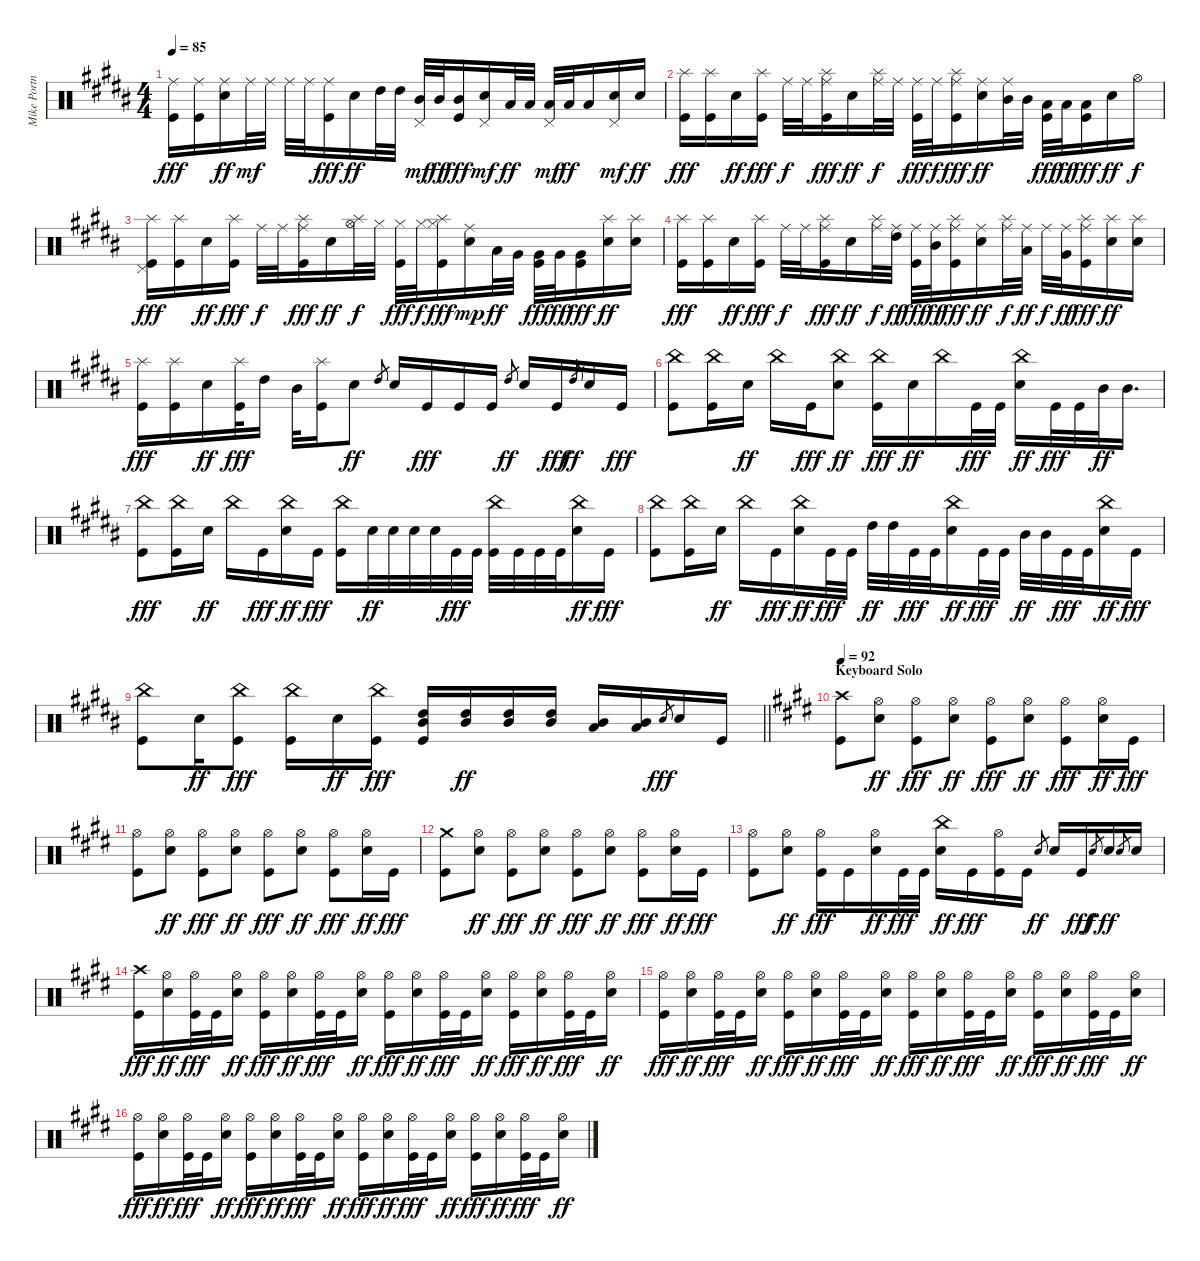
\track ("Mike Portnoy" "Mike Portn") {instrument percussion}
\staff {score}
\articulation defaults
\ts (4 4)
\tempo 85
\clef neutral
\ks b
("Ride (middle)" "Kick (hit)").16{dy fff} ("Ride (middle)" "Kick (hit)").16 ("Ride (middle)" "Electric Snare (hit)").16{dy ff} "Ride (middle)".32{dy mf} "Ride (middle)".32 "Ride (middle)".32 "Ride (middle)".32 ("Ride (middle)" "Kick (hit)").16{dy fff} "Electric Snare (hit)".16{dy ff} "High Tom (hit)".32 "High Tom (hit)".32 ("Mid Tom (hit)" "Pedal Hi-Hat (hit)").32{dy mf} "Mid Tom (hit)".32{dy ff} ("Mid Tom (hit)" "Kick (hit)").16{dy fff} ("Electric Snare (hit)" "Pedal Hi-Hat (hit)").16{dy mf} "Low Tom (hit)".32{dy ff} "Low Tom (hit)".32 ("Low Tom (hit)" "Pedal Hi-Hat (hit)").32{dy mf} "Low Tom (hit)".32{dy ff} "Low Tom (hit)".16 ("Electric Snare (hit)" "Pedal Hi-Hat (hit)").16{dy mf} "Electric Snare (hit)".16{dy ff} |
("Splash (hit)" "Kick (hit)").16{dy fff} ("Splash (hit)" "Kick (hit)").16 "Electric Snare (hit)".16{dy ff} ("Splash (hit)" "Kick (hit)").16{dy fff} "Ride (middle)".32{dy f} "Ride (middle)".32 ("Ride (middle)" "Splash (hit)" "Kick (hit)").16{dy fff} "Electric Snare (hit)".16{dy ff} ("Ride (middle)" "Splash (hit)").32{dy f} "Ride (middle)".32 ("Ride (middle)" "Kick (hit)").32{dy fff} "Ride (middle)".32{dy f} ("Ride (middle)" "Splash (hit)" "Kick (hit)").16{dy fff} ("Ride (middle)" "Electric Snare (hit)").16{dy ff} ("Ride (middle)" "Mid Tom (hit)").32 "Mid Tom (hit)".32 ("Low Tom (hit)" "Kick (hit)").32{dy fff} "Low Tom (hit)".32{dy ff} ("Low Tom (hit)" "Kick (hit)").16{dy fff} "Electric Snare (hit)".16{dy ff} "Hi-Hat (open)".16{dy f} |
("Splash (hit)" "Pedal Hi-Hat (hit)" "Kick (hit)").16{dy fff} ("Splash (hit)" "Kick (hit)").16 "Electric Snare (hit)".16{dy ff} ("Splash (hit)" "Kick (hit)").16{dy fff} "Ride (middle)".32{dy f} "Ride (middle)".32 ("Ride (middle)" "Splash (hit)" "Kick (hit)").16{dy fff} "Electric Snare (hit)".16{dy ff} ("Hi-Hat (open)" "Splash (hit)").32{dy f} "Hi-Hat (closed)".32 ("Hi-Hat (closed)" "Kick (hit)").32{dy fff} "Hi-Hat (closed)".32{dy f} ("Hi-Hat (closed)" "Splash (hit)" "Kick (hit)").16{dy fff} ("Ride (middle)" "Electric Snare (hit)").16{dy mp} "Low Tom (hit)".32{dy ff} "Very Low Tom (hit)".32 ("Very Low Tom (hit)" "Kick (hit)").32{dy fff} "Very Low Tom (hit)".32{dy ff} ("Very Low Tom (hit)" "Kick (hit)").16{dy fff} ("Splash (hit)" "Electric Snare (hit)").16{dy ff} ("Splash (hit)" "Electric Snare (hit)").16 |
("Splash (hit)" "Kick (hit)").16{dy fff} ("Splash (hit)" "Kick (hit)").16 "Electric Snare (hit)".16{dy ff} ("Splash (hit)" "Kick (hit)").16{dy fff} "Ride (middle)".32{dy f} "Ride (middle)".32 ("Ride (middle)" "Splash (hit)" "Kick (hit)").16{dy fff} "Electric Snare (hit)".16{dy ff} ("Ride (middle)" "Splash (hit)").32{dy f} ("Ride (middle)" "High Tom (hit)").32{dy ff} ("Ride (middle)" "Kick (hit)").32{dy fff} ("Ride (middle)" "Mid Tom (hit)").32{dy ff} ("Ride (middle)" "Splash (hit)" "Kick (hit)").16{dy fff} ("Ride (middle)" "Electric Snare (hit)").16{dy ff} ("Ride (middle)" "Splash (hit)").32{dy f} ("Ride (middle)" "Low Tom (hit)").32{dy ff} "Ride (middle)".32{dy f} ("Ride (middle)" "Very Low Tom (hit)").32{dy ff} ("Ride (middle)" "Splash (hit)" "Kick (hit)").16{dy fff} ("Splash (hit)" "Electric Snare (hit)").16{dy ff} ("Splash (hit)" "Electric Snare (hit)").16 |
("Splash (hit)" "Kick (hit)").16{dy fff} ("Splash (hit)" "Kick (hit)").16 "Electric Snare (hit)".16{dy ff} ("Splash (hit)" "Kick (hit)").32{dy fff} "High Tom (hit)".16 "Mid Tom (hit)".32 ("Splash (hit)" "Kick (hit)").16 "Electric Snare (hit)".8{dy ff} "High Tom (hit)".8{gr} "Electric Snare (hit)".16 "Kick (hit)".16{dy fff} "Kick (hit)".16 "Kick (hit)".16 "High Tom (hit)".8{gr dy ff} "Electric Snare (hit)".16 "Kick (hit)".16{dy fff} "High Tom (hit)".8{gr dy ff} "Electric Snare (hit)".16 "Kick (hit)".16{dy fff} |
("China (hit)" "Kick (hit)").8 ("China (hit)" "Kick (hit)").16 "Electric Snare (hit)".16{dy ff} "China (hit)".16 "Kick (hit)".16{dy fff} ("China (hit)" "Electric Snare (hit)").8{dy ff} ("China (hit)" "Kick (hit)").16{dy fff} "Electric Snare (hit)".16{dy ff} "China (hit)".16 "Kick (hit)".32{dy fff} "Kick (hit)".32 ("China (hit)" "Electric Snare (hit)").16{dy ff} "Kick (hit)".32{dy fff} "Kick (hit)".32 "Mid Tom (hit)".32{dy ff} "Mid Tom (hit)".16{d} |
("China (hit)" "Kick (hit)").8{dy fff} ("China (hit)" "Kick (hit)").16 "Electric Snare (hit)".16{dy ff} "China (hit)".16 "Kick (hit)".16{dy fff} ("China (hit)" "Electric Snare (hit)").16{dy ff} "Kick (hit)".16{dy fff} ("China (hit)" "Kick (hit)").16 "Electric Snare (hit)".32{dy ff} "Electric Snare (hit)".32 "Electric Snare (hit)".32 "Electric Snare (hit)".32 "Kick (hit)".32{dy fff} "Kick (hit)".32 ("China (hit)" "Kick (hit)").32 "Kick (hit)".32 "Kick (hit)".32 "Kick (hit)".32 ("China (hit)" "Electric Snare (hit)").16{dy ff} "Kick (hit)".16{dy fff} |
("China (hit)" "Kick (hit)").8 ("China (hit)" "Kick (hit)").16 "Electric Snare (hit)".16{dy ff} "China (hit)".16 "Kick (hit)".16{dy fff} ("China (hit)" "Electric Snare (hit)").16{dy ff} "Kick (hit)".32{dy fff} "Kick (hit)".32 "High Tom (hit)".32{dy ff} "High Tom (hit)".32 "Kick (hit)".32{dy fff} "Kick (hit)".32 ("China (hit)" "Electric Snare (hit)").16{dy ff} "Kick (hit)".32{dy fff} "Kick (hit)".32 "Mid Tom (hit)".32{dy ff} "Mid Tom (hit)".32 "Kick (hit)".32{dy fff} "Kick (hit)".32 ("China (hit)" "Electric Snare (hit)").16{dy ff} "Kick (hit)".16{dy fff} |
\barLineRight lightlight
("China (hit)" "Kick (hit)").8 "Electric Snare (hit)".16{dy ff} ("China (hit)" "Kick (hit)").8{dy fff} ("China (hit)" "Kick (hit)").16 "Electric Snare (hit)".16{dy ff} ("China (hit)" "Kick (hit)").16{dy fff} ("High Tom (hit)" "Mid Tom (hit)" "Kick (hit)").16 ("High Tom (hit)" "Mid Tom (hit)").16{dy ff} ("High Tom (hit)" "Mid Tom (hit)").16 ("High Tom (hit)" "Mid Tom (hit)").16 ("Mid Tom (hit)" "Low Tom (hit)").16 ("Mid Tom (hit)" "Low Tom (hit)").16 "Electric Snare (hit)".8{gr dy fff} "Electric Snare (hit)".16 "Kick (hit)".16 |
\section ("" "Keyboard Solo")
\tempo 92
\ks e
("Crash high (hit)" "Kick (hit)").8 ("Hi-Hat (open)" "Electric Snare (hit)").8{dy ff} ("Hi-Hat (open)" "Kick (hit)").8{dy fff} ("Hi-Hat (open)" "Electric Snare (hit)").8{dy ff} ("Hi-Hat (open)" "Kick (hit)").8{dy fff} ("Hi-Hat (open)" "Electric Snare (hit)").8{dy ff} ("Hi-Hat (open)" "Kick (hit)").8{dy fff} ("Hi-Hat (open)" "Electric Snare (hit)").16{dy ff} "Kick (hit)".16{dy fff} |
("Hi-Hat (open)" "Kick (hit)").8 ("Hi-Hat (open)" "Electric Snare (hit)").8{dy ff} ("Hi-Hat (open)" "Kick (hit)").8{dy fff} ("Hi-Hat (open)" "Electric Snare (hit)").8{dy ff} ("Hi-Hat (open)" "Kick (hit)").8{dy fff} ("Hi-Hat (open)" "Electric Snare (hit)").8{dy ff} ("Hi-Hat (open)" "Kick (hit)").8{dy fff} ("Hi-Hat (open)" "Electric Snare (hit)").16{dy ff} "Kick (hit)".16{dy fff} |
("Crash medium (hit)" "Kick (hit)").8 ("Hi-Hat (open)" "Electric Snare (hit)").8{dy ff} ("Hi-Hat (open)" "Kick (hit)").8{dy fff} ("Hi-Hat (open)" "Electric Snare (hit)").8{dy ff} ("Hi-Hat (open)" "Kick (hit)").8{dy fff} ("Hi-Hat (open)" "Electric Snare (hit)").8{dy ff} ("Hi-Hat (open)" "Kick (hit)").8{dy fff} ("Hi-Hat (open)" "Electric Snare (hit)").16{dy ff} "Kick (hit)".16{dy fff} |
("Hi-Hat (open)" "Kick (hit)").8 ("Hi-Hat (open)" "Electric Snare (hit)").8{dy ff} ("Hi-Hat (open)" "Kick (hit)").16{dy fff} "Kick (hit)".16 ("Hi-Hat (open)" "Electric Snare (hit)").16{dy ff} "Kick (hit)".32{dy fff} "Kick (hit)".32 ("China (hit)" "Electric Snare (hit)").16{dy ff} "Kick (hit)".16{dy fff} ("Hi-Hat (open)" "Kick (hit)").16 "Kick (hit)".16 "Electric Snare (hit)".8{gr dy ff} "Electric Snare (hit)".16 "Kick (hit)".16{dy fff} "Electric Snare (hit)".8{gr dy f} "Electric Snare (hit)".16{dy ff} "Electric Snare (hit)".8{gr} "Electric Snare (hit)".16 |
("Crash high (hit)" "Kick (hit)").16{dy fff} ("Hi-Hat (open)" "Electric Snare (hit)").16{dy ff} ("Hi-Hat (open)" "Kick (hit)").32{dy fff} "Kick (hit)".32 ("Hi-Hat (open)" "Electric Snare (hit)").16{dy ff} ("Hi-Hat (open)" "Kick (hit)").16{dy fff} ("Hi-Hat (open)" "Electric Snare (hit)").16{dy ff} ("Hi-Hat (open)" "Kick (hit)").32{dy fff} "Kick (hit)".32 ("Hi-Hat (open)" "Electric Snare (hit)").16{dy ff} ("Hi-Hat (open)" "Kick (hit)").16{dy fff} ("Hi-Hat (open)" "Electric Snare (hit)").16{dy ff} ("Hi-Hat (open)" "Kick (hit)").32{dy fff} "Kick (hit)".32 ("Hi-Hat (open)" "Electric Snare (hit)").16{dy ff} ("Hi-Hat (open)" "Kick (hit)").16{dy fff} ("Hi-Hat (open)" "Electric Snare (hit)").16{dy ff} ("Hi-Hat (open)" "Kick (hit)").32{dy fff} "Kick (hit)".32 ("Hi-Hat (open)" "Electric Snare (hit)").16{dy ff} |
("Hi-Hat (open)" "Kick (hit)").16{dy fff} ("Hi-Hat (open)" "Electric Snare (hit)").16{dy ff} ("Hi-Hat (open)" "Kick (hit)").32{dy fff} "Kick (hit)".32 ("Hi-Hat (open)" "Electric Snare (hit)").16{dy ff} ("Hi-Hat (open)" "Kick (hit)").16{dy fff} ("Hi-Hat (open)" "Electric Snare (hit)").16{dy ff} ("Hi-Hat (open)" "Kick (hit)").32{dy fff} "Kick (hit)".32 ("Hi-Hat (open)" "Electric Snare (hit)").16{dy ff} ("Hi-Hat (open)" "Kick (hit)").16{dy fff} ("Hi-Hat (open)" "Electric Snare (hit)").16{dy ff} ("Hi-Hat (open)" "Kick (hit)").32{dy fff} "Kick (hit)".32 ("Hi-Hat (open)" "Electric Snare (hit)").16{dy ff} ("Hi-Hat (open)" "Kick (hit)").16{dy fff} ("Hi-Hat (open)" "Electric Snare (hit)").16{dy ff} ("Hi-Hat (open)" "Kick (hit)").32{dy fff} "Kick (hit)".32 ("Hi-Hat (open)" "Electric Snare (hit)").16{dy ff} |
("Hi-Hat (open)" "Kick (hit)").16{dy fff} ("Hi-Hat (open)" "Electric Snare (hit)").16{dy ff} ("Hi-Hat (open)" "Kick (hit)").32{dy fff} "Kick (hit)".32 ("Hi-Hat (open)" "Electric Snare (hit)").16{dy ff} ("Hi-Hat (open)" "Kick (hit)").16{dy fff} ("Hi-Hat (open)" "Electric Snare (hit)").16{dy ff} ("Hi-Hat (open)" "Kick (hit)").32{dy fff} "Kick (hit)".32 ("Hi-Hat (open)" "Electric Snare (hit)").16{dy ff} ("Hi-Hat (open)" "Kick (hit)").16{dy fff} ("Hi-Hat (open)" "Electric Snare (hit)").16{dy ff} ("Hi-Hat (open)" "Kick (hit)").32{dy fff} "Kick (hit)".32 ("Hi-Hat (open)" "Electric Snare (hit)").16{dy ff} ("Hi-Hat (open)" "Kick (hit)").16{dy fff} ("Hi-Hat (open)" "Electric Snare (hit)").16{dy ff} ("Hi-Hat (open)" "Kick (hit)").32{dy fff} "Kick (hit)".32 ("Hi-Hat (open)" "Electric Snare (hit)").16{dy ff}
